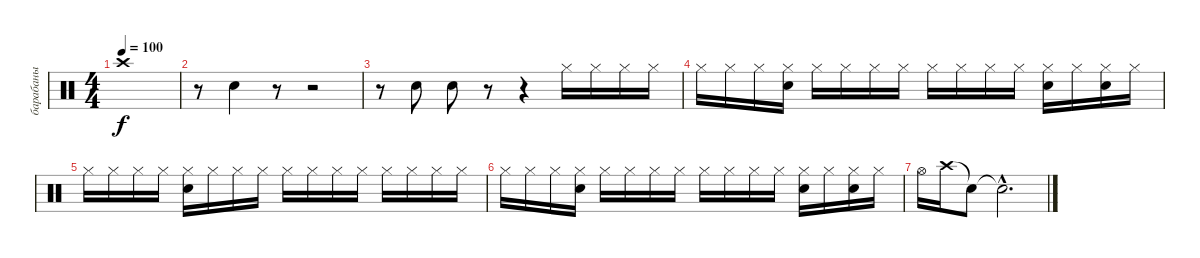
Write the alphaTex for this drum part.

\track ("барабаны" "барабаны") {instrument percussion}
\staff {score}
\articulation defaults
\ts (4 4)
\tempo 100
\clef neutral
\ks c "Crash high (hit)".1{dy f}
|
r.8 "Electric Snare (hit)".4 r.8 r.2 |
r.8 "Electric Snare (hit)".8 "Electric Snare (hit)".8 r.8 r.4 "Hi-Hat (closed)".16 "Hi-Hat (closed)".16 "Hi-Hat (closed)".16 "Hi-Hat (closed)".16 |
"Hi-Hat (closed)".16 "Hi-Hat (closed)".16 "Hi-Hat (closed)".16 ("Hi-Hat (closed)" "Electric Snare (hit)").16 "Hi-Hat (closed)".16 "Hi-Hat (closed)".16 "Hi-Hat (closed)".16 "Hi-Hat (closed)".16 "Hi-Hat (closed)".16 "Hi-Hat (closed)".16 "Hi-Hat (closed)".16 "Hi-Hat (closed)".16 ("Hi-Hat (closed)" "Electric Snare (hit)").16 "Hi-Hat (closed)".16 ("Hi-Hat (closed)" "Electric Snare (hit)").16 "Hi-Hat (closed)".16 |
"Hi-Hat (closed)".16 "Hi-Hat (closed)".16 "Hi-Hat (closed)".16 "Hi-Hat (closed)".16 ("Hi-Hat (closed)" "Electric Snare (hit)").16 "Hi-Hat (closed)".16 "Hi-Hat (closed)".16 "Hi-Hat (closed)".16 "Hi-Hat (closed)".16 "Hi-Hat (closed)".16 "Hi-Hat (closed)".16 "Hi-Hat (closed)".16 "Hi-Hat (closed)".16 "Hi-Hat (closed)".16 "Hi-Hat (closed)".16 "Hi-Hat (closed)".16 |
"Hi-Hat (closed)".16 "Hi-Hat (closed)".16 "Hi-Hat (closed)".16 ("Hi-Hat (closed)" "Electric Snare (hit)").16 "Hi-Hat (closed)".16 "Hi-Hat (closed)".16 "Hi-Hat (closed)".16 "Hi-Hat (closed)".16 "Hi-Hat (closed)".16 "Hi-Hat (closed)".16 "Hi-Hat (closed)".16 "Hi-Hat (closed)".16 ("Hi-Hat (closed)" "Electric Snare (hit)").16 "Hi-Hat (closed)".16 ("Hi-Hat (closed)" "Electric Snare (hit)").16 "Hi-Hat (closed)".16 |
"Hi-Hat (open)".16 "Crash high (hit)".16 "Snare (hit)"{t}.8 "Snare (hit)"{hac t}.2{d}
